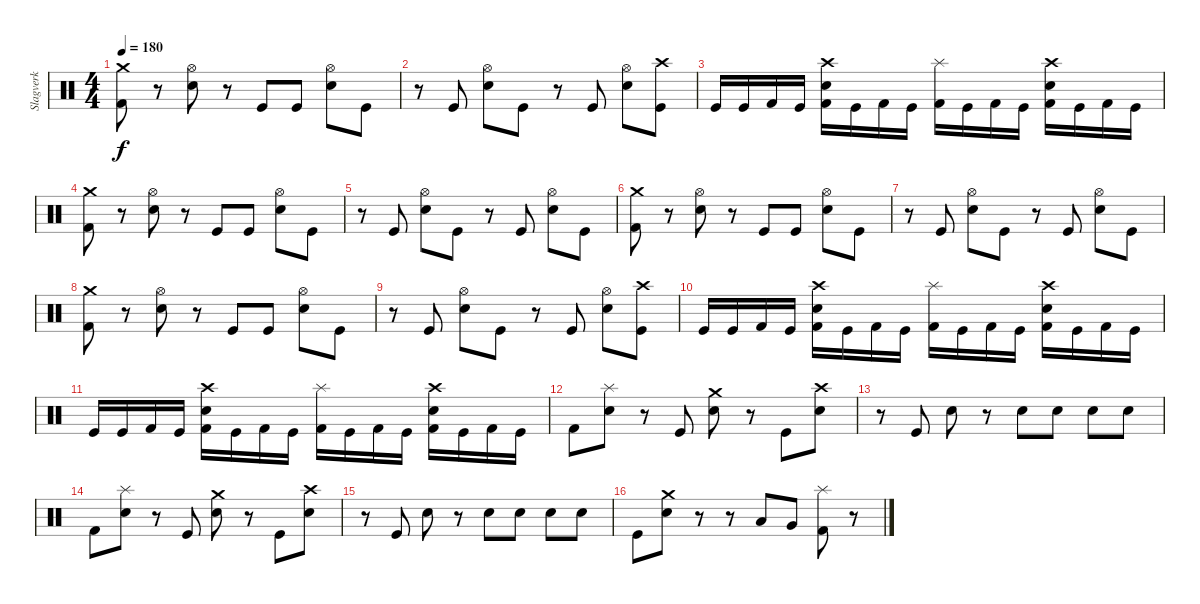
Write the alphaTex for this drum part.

\track ("Slagverk" "Slagverk") {instrument percussion}
\staff {score}
\articulation defaults
\ts (4 4)
\tempo 180
\clef neutral
\ks c
("Crash medium (hit)" "Kick (hit) 2").8{dy f} r.8 ("Hi-Hat (open)" "Electric Snare (hit)").8 r.8 "Kick (hit)".8 "Kick (hit)".8 ("Hi-Hat (open)" "Electric Snare (hit)").8 "Kick (hit)".8 |
r.8 "Kick (hit)".8 ("Hi-Hat (open)" "Electric Snare (hit)").8 "Kick (hit)".8 r.8 "Kick (hit)".8 ("Hi-Hat (open)" "Electric Snare (hit)").8 ("Crash high (hit)" "Kick (hit)").8 |
"Kick (hit)".16 "Kick (hit)".16 "Kick (hit) 2".16 "Kick (hit)".16 ("Crash high (hit)" "Electric Snare (hit)" "Kick (hit) 2").16 "Kick (hit)".16 "Kick (hit) 2".16 "Kick (hit)".16 ("Splash (hit)" "Kick (hit) 2").16 "Kick (hit)".16 "Kick (hit) 2".16 "Kick (hit)".16 ("Crash high (hit)" "Electric Snare (hit)" "Kick (hit) 2").16 "Kick (hit)".16 "Kick (hit) 2".16 "Kick (hit)".16 |
("Crash medium (hit)" "Kick (hit) 2").8 r.8 ("Hi-Hat (open)" "Electric Snare (hit)").8 r.8 "Kick (hit)".8 "Kick (hit)".8 ("Hi-Hat (open)" "Electric Snare (hit)").8 "Kick (hit)".8 |
r.8 "Kick (hit)".8 ("Hi-Hat (open)" "Electric Snare (hit)").8 "Kick (hit)".8 r.8 "Kick (hit)".8 ("Hi-Hat (open)" "Electric Snare (hit)").8 "Kick (hit)".8 |
("Crash medium (hit)" "Kick (hit) 2").8 r.8 ("Hi-Hat (open)" "Electric Snare (hit)").8 r.8 "Kick (hit)".8 "Kick (hit)".8 ("Hi-Hat (open)" "Electric Snare (hit)").8 "Kick (hit)".8 |
r.8 "Kick (hit)".8 ("Hi-Hat (open)" "Electric Snare (hit)").8 "Kick (hit)".8 r.8 "Kick (hit)".8 ("Hi-Hat (open)" "Electric Snare (hit)").8 "Kick (hit)".8 |
("Crash medium (hit)" "Kick (hit) 2").8 r.8 ("Hi-Hat (open)" "Electric Snare (hit)").8 r.8 "Kick (hit)".8 "Kick (hit)".8 ("Hi-Hat (open)" "Electric Snare (hit)").8 "Kick (hit)".8 |
r.8 "Kick (hit)".8 ("Hi-Hat (open)" "Electric Snare (hit)").8 "Kick (hit)".8 r.8 "Kick (hit)".8 ("Hi-Hat (open)" "Electric Snare (hit)").8 ("Crash high (hit)" "Kick (hit)").8 |
"Kick (hit)".16 "Kick (hit)".16 "Kick (hit) 2".16 "Kick (hit)".16 ("Crash high (hit)" "Electric Snare (hit)" "Kick (hit) 2").16 "Kick (hit)".16 "Kick (hit) 2".16 "Kick (hit)".16 ("Splash (hit)" "Kick (hit) 2").16 "Kick (hit)".16 "Kick (hit) 2".16 "Kick (hit)".16 ("Crash high (hit)" "Electric Snare (hit)" "Kick (hit) 2").16 "Kick (hit)".16 "Kick (hit) 2".16 "Kick (hit)".16 |
"Kick (hit)".16 "Kick (hit)".16 "Kick (hit) 2".16 "Kick (hit)".16 ("Crash high (hit)" "Electric Snare (hit)" "Kick (hit) 2").16 "Kick (hit)".16 "Kick (hit) 2".16 "Kick (hit)".16 ("Splash (hit)" "Kick (hit) 2").16 "Kick (hit)".16 "Kick (hit) 2".16 "Kick (hit)".16 ("Crash high (hit)" "Electric Snare (hit)" "Kick (hit) 2").16 "Kick (hit)".16 "Kick (hit) 2".16 "Kick (hit)".16 |
"Kick (hit) 2".8 ("Splash (hit)" "Electric Snare (hit)").8 r.8 "Kick (hit)".8 ("Crash medium (hit)" "Electric Snare (hit)").8 r.8 "Kick (hit)".8 ("Crash high (hit)" "Electric Snare (hit)").8 |
r.8 "Kick (hit)".8 "Electric Snare (hit)".8 r.8 "Electric Snare (hit)".8 "Electric Snare (hit)".8 "Electric Snare (hit)".8 "Electric Snare (hit)".8 |
"Kick (hit) 2".8 ("Splash (hit)" "Electric Snare (hit)").8 r.8 "Kick (hit)".8 ("Crash medium (hit)" "Electric Snare (hit)").8 r.8 "Kick (hit)".8 ("Crash high (hit)" "Electric Snare (hit)").8 |
r.8 "Kick (hit)".8 "Electric Snare (hit)".8 r.8 "Electric Snare (hit)".8 "Electric Snare (hit)".8 "Electric Snare (hit)".8 "Electric Snare (hit)".8 |
"Kick (hit)".8 ("Crash medium (hit)" "Electric Snare (hit)").8 r.8 r.8 "Low Tom (hit)".8 "Very Low Tom (hit)".8 ("Splash (hit)" "Kick (hit) 2").8 r.8
